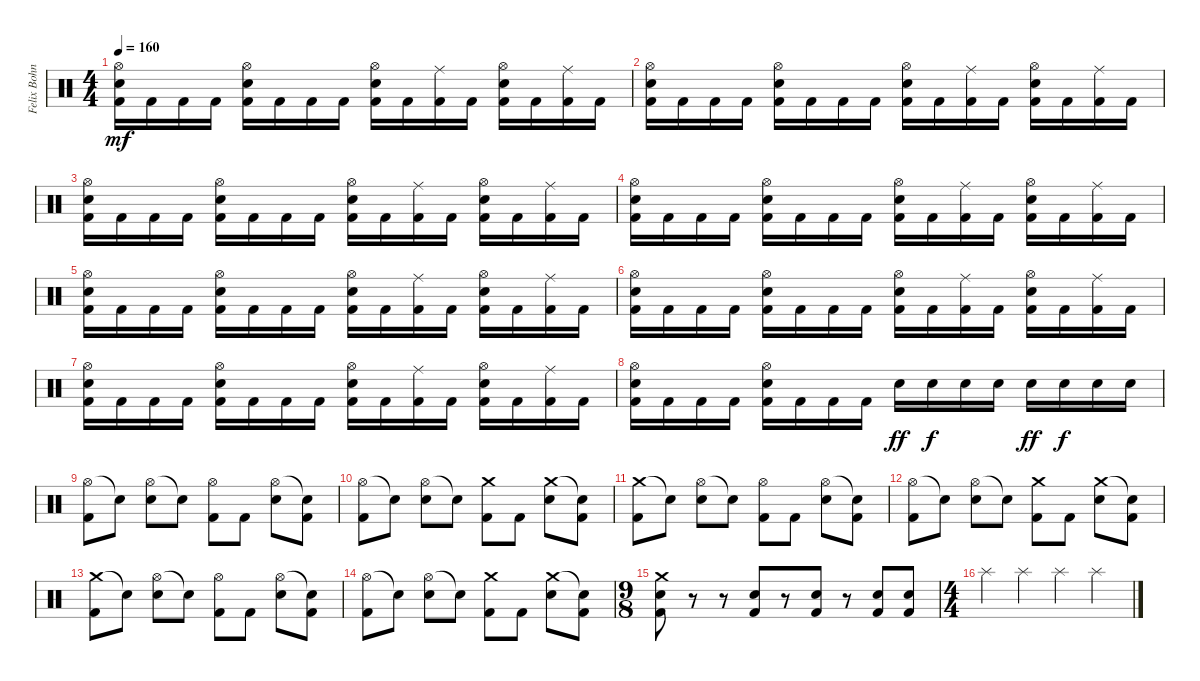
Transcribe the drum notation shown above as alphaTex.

\track ("Felix Bohnke" "Felix Bohn") {instrument percussion}
\staff {score}
\articulation defaults
\ts (4 4)
\tempo 160
\clef neutral
\ks c
("Hi-Hat (open)" "Electric Snare (hit)" "Kick (hit) 2").16{dy mf} "Kick (hit) 2".16 "Kick (hit) 2".16 "Kick (hit) 2".16 ("Hi-Hat (open)" "Electric Snare (hit)" "Kick (hit) 2").16 "Kick (hit) 2".16 "Kick (hit) 2".16 "Kick (hit) 2".16 ("Hi-Hat (open)" "Electric Snare (hit)" "Kick (hit) 2").16 "Kick (hit) 2".16 ("Ride (middle)" "Kick (hit) 2").16 "Kick (hit) 2".16 ("Hi-Hat (open)" "Electric Snare (hit)" "Kick (hit) 2").16 "Kick (hit) 2".16 ("Ride (middle)" "Kick (hit) 2").16 "Kick (hit) 2".16 |
("Hi-Hat (open)" "Electric Snare (hit)" "Kick (hit) 2").16 "Kick (hit) 2".16 "Kick (hit) 2".16 "Kick (hit) 2".16 ("Hi-Hat (open)" "Electric Snare (hit)" "Kick (hit) 2").16 "Kick (hit) 2".16 "Kick (hit) 2".16 "Kick (hit) 2".16 ("Hi-Hat (open)" "Electric Snare (hit)" "Kick (hit) 2").16 "Kick (hit) 2".16 ("Ride (middle)" "Kick (hit) 2").16 "Kick (hit) 2".16 ("Hi-Hat (open)" "Electric Snare (hit)" "Kick (hit) 2").16 "Kick (hit) 2".16 ("Ride (middle)" "Kick (hit) 2").16 "Kick (hit) 2".16 |
("Hi-Hat (open)" "Electric Snare (hit)" "Kick (hit) 2").16 "Kick (hit) 2".16 "Kick (hit) 2".16 "Kick (hit) 2".16 ("Hi-Hat (open)" "Electric Snare (hit)" "Kick (hit) 2").16 "Kick (hit) 2".16 "Kick (hit) 2".16 "Kick (hit) 2".16 ("Hi-Hat (open)" "Electric Snare (hit)" "Kick (hit) 2").16 "Kick (hit) 2".16 ("Ride (middle)" "Kick (hit) 2").16 "Kick (hit) 2".16 ("Hi-Hat (open)" "Electric Snare (hit)" "Kick (hit) 2").16 "Kick (hit) 2".16 ("Ride (middle)" "Kick (hit) 2").16 "Kick (hit) 2".16 |
("Hi-Hat (open)" "Electric Snare (hit)" "Kick (hit) 2").16 "Kick (hit) 2".16 "Kick (hit) 2".16 "Kick (hit) 2".16 ("Hi-Hat (open)" "Electric Snare (hit)" "Kick (hit) 2").16 "Kick (hit) 2".16 "Kick (hit) 2".16 "Kick (hit) 2".16 ("Hi-Hat (open)" "Electric Snare (hit)" "Kick (hit) 2").16 "Kick (hit) 2".16 ("Ride (middle)" "Kick (hit) 2").16 "Kick (hit) 2".16 ("Hi-Hat (open)" "Electric Snare (hit)" "Kick (hit) 2").16 "Kick (hit) 2".16 ("Ride (middle)" "Kick (hit) 2").16 "Kick (hit) 2".16 |
("Hi-Hat (open)" "Electric Snare (hit)" "Kick (hit) 2").16 "Kick (hit) 2".16 "Kick (hit) 2".16 "Kick (hit) 2".16 ("Hi-Hat (open)" "Electric Snare (hit)" "Kick (hit) 2").16 "Kick (hit) 2".16 "Kick (hit) 2".16 "Kick (hit) 2".16 ("Hi-Hat (open)" "Electric Snare (hit)" "Kick (hit) 2").16 "Kick (hit) 2".16 ("Ride (middle)" "Kick (hit) 2").16 "Kick (hit) 2".16 ("Hi-Hat (open)" "Electric Snare (hit)" "Kick (hit) 2").16 "Kick (hit) 2".16 ("Ride (middle)" "Kick (hit) 2").16 "Kick (hit) 2".16 |
("Hi-Hat (open)" "Electric Snare (hit)" "Kick (hit) 2").16 "Kick (hit) 2".16 "Kick (hit) 2".16 "Kick (hit) 2".16 ("Hi-Hat (open)" "Electric Snare (hit)" "Kick (hit) 2").16 "Kick (hit) 2".16 "Kick (hit) 2".16 "Kick (hit) 2".16 ("Hi-Hat (open)" "Electric Snare (hit)" "Kick (hit) 2").16 "Kick (hit) 2".16 ("Ride (middle)" "Kick (hit) 2").16 "Kick (hit) 2".16 ("Hi-Hat (open)" "Electric Snare (hit)" "Kick (hit) 2").16 "Kick (hit) 2".16 ("Ride (middle)" "Kick (hit) 2").16 "Kick (hit) 2".16 |
("Hi-Hat (open)" "Electric Snare (hit)" "Kick (hit) 2").16 "Kick (hit) 2".16 "Kick (hit) 2".16 "Kick (hit) 2".16 ("Hi-Hat (open)" "Electric Snare (hit)" "Kick (hit) 2").16 "Kick (hit) 2".16 "Kick (hit) 2".16 "Kick (hit) 2".16 ("Hi-Hat (open)" "Electric Snare (hit)" "Kick (hit) 2").16 "Kick (hit) 2".16 ("Ride (middle)" "Kick (hit) 2").16 "Kick (hit) 2".16 ("Hi-Hat (open)" "Electric Snare (hit)" "Kick (hit) 2").16 "Kick (hit) 2".16 ("Ride (middle)" "Kick (hit) 2").16 "Kick (hit) 2".16 |
("Hi-Hat (open)" "Electric Snare (hit)" "Kick (hit) 2").16 "Kick (hit) 2".16 "Kick (hit) 2".16 "Kick (hit) 2".16 ("Hi-Hat (open)" "Electric Snare (hit)" "Kick (hit) 2").16 "Kick (hit) 2".16 "Kick (hit) 2".16 "Kick (hit) 2".16 "Electric Snare (hit)".16{dy ff} "Electric Snare (hit)".16{dy f} "Electric Snare (hit)".16 "Electric Snare (hit)".16 "Electric Snare (hit)".16{dy ff} "Electric Snare (hit)".16{dy f} "Electric Snare (hit)".16 "Electric Snare (hit)".16 |
("Hi-Hat (open)" "Kick (hit) 2").8 "Snare (hit)"{t}.8 ("Hi-Hat (open)" "Electric Snare (hit)").8 "Snare (hit)"{t}.8 ("Hi-Hat (open)" "Kick (hit) 2").8 "Kick (hit) 2".8 ("Hi-Hat (open)" "Electric Snare (hit)").8 ("Snare (hit)"{t} "Kick (hit) 2").8 |
("Hi-Hat (open)" "Kick (hit) 2").8 "Snare (hit)"{t}.8 ("Hi-Hat (open)" "Electric Snare (hit)").8 "Snare (hit)"{t}.8 ("Crash medium (hit)" "Kick (hit) 2").8 "Kick (hit) 2".8 ("Crash medium (hit)" "Electric Snare (hit)").8 ("Snare (hit)"{t} "Kick (hit) 2").8 |
("Crash medium (hit)" "Kick (hit) 2").8 "Snare (hit)"{t}.8 ("Hi-Hat (open)" "Electric Snare (hit)").8 "Snare (hit)"{t}.8 ("Hi-Hat (open)" "Kick (hit) 2").8 "Kick (hit) 2".8 ("Hi-Hat (open)" "Electric Snare (hit)").8 ("Snare (hit)"{t} "Kick (hit) 2").8 |
("Hi-Hat (open)" "Kick (hit) 2").8 "Snare (hit)"{t}.8 ("Hi-Hat (open)" "Electric Snare (hit)").8 "Snare (hit)"{t}.8 ("Crash medium (hit)" "Kick (hit) 2").8 "Kick (hit) 2".8 ("Crash medium (hit)" "Electric Snare (hit)").8 ("Snare (hit)"{t} "Kick (hit) 2").8 |
("Crash medium (hit)" "Kick (hit) 2").8 "Snare (hit)"{t}.8 ("Hi-Hat (open)" "Electric Snare (hit)").8 "Snare (hit)"{t}.8 ("Hi-Hat (open)" "Kick (hit) 2").8 "Kick (hit) 2".8 ("Hi-Hat (open)" "Electric Snare (hit)").8 ("Snare (hit)"{t} "Kick (hit) 2").8 |
("Hi-Hat (open)" "Kick (hit) 2").8 "Snare (hit)"{t}.8 ("Hi-Hat (open)" "Electric Snare (hit)").8 "Snare (hit)"{t}.8 ("Crash medium (hit)" "Kick (hit) 2").8 "Kick (hit) 2".8 ("Crash medium (hit)" "Electric Snare (hit)").8 ("Snare (hit)"{t} "Kick (hit) 2").8 |
\ts (9 8)
("Crash medium (hit)" "Electric Snare (hit)" "Kick (hit) 2").8 r.8 r.8 ("Electric Snare (hit)" "Kick (hit) 2").8 r.8 ("Electric Snare (hit)" "Kick (hit) 2").8 r.8 ("Electric Snare (hit)" "Kick (hit) 2").8 ("Electric Snare (hit)" "Kick (hit) 2").8 |
\ts (4 4)
"Splash (hit)".4 "Splash (hit)".4 "Splash (hit)".4 "Splash (hit)".4
